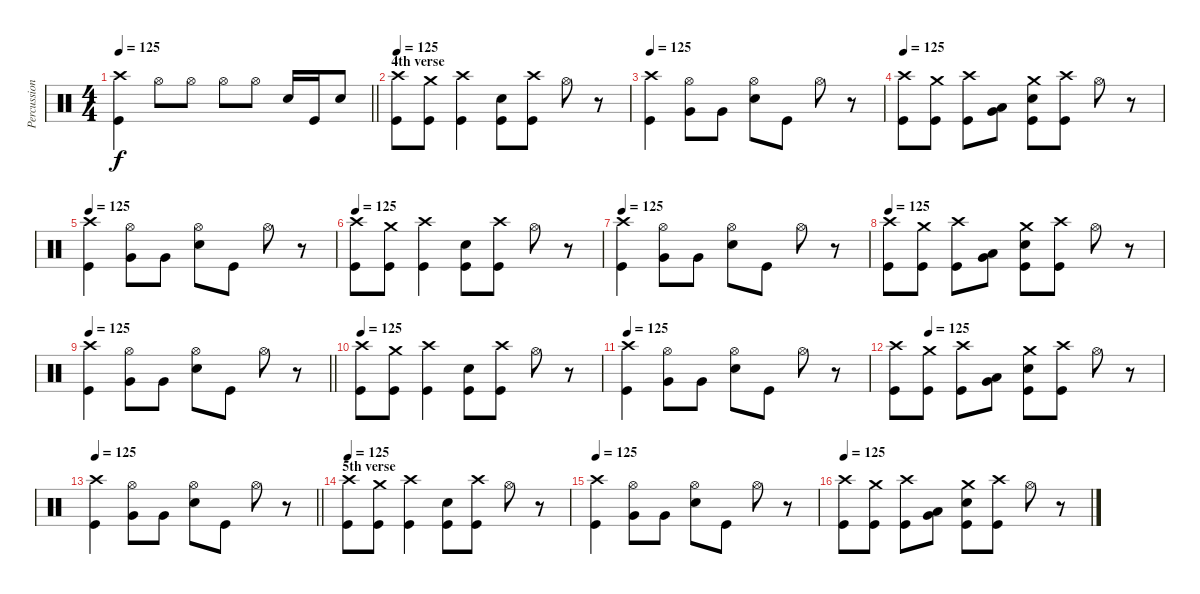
\track ("Percussions" "Percussion") {instrument percussion}
\staff {score}
\articulation defaults
\ts (4 4)
\tempo 125
\clef neutral
\barLineRight lightlight
\ks c
("Crash high (hit)" "Kick (hit)").4{dy f} "Hi-Hat (open)".8 "Hi-Hat (open)".8 "Hi-Hat (open)".8 "Hi-Hat (open)".8 "Electric Snare (hit)".16 "Kick (hit)".16 "Electric Snare (hit)".8 |
\section ("" "4th verse")
\tempo 125
("Crash high (hit)" "Kick (hit)").8 ("Crash medium (hit)" "Kick (hit)").8 ("Crash high (hit)" "Kick (hit)").4 ("Electric Snare (hit)" "Kick (hit)").8 ("Crash high (hit)" "Kick (hit)").8 "Hi-Hat (open)".8 r.8 |
\tempo 125
("Crash high (hit)" "Kick (hit)").4 ("Hi-Hat (open)" "Very Low Tom (hit)").8 "Very Low Tom (hit)".8 ("Hi-Hat (open)" "Electric Snare (hit)").8 "Kick (hit)".8 "Hi-Hat (open)".8 r.8 |
\tempo 125
("Crash high (hit)" "Kick (hit)").8 ("Crash medium (hit)" "Kick (hit)").8 ("Crash high (hit)" "Kick (hit)").8 ("Very Low Tom (hit)" "Low Floor Tom (hit)").8 ("Crash medium (hit)" "Electric Snare (hit)" "Kick (hit)").8 ("Crash high (hit)" "Kick (hit)").8 "Hi-Hat (open)".8 r.8 |
\tempo 125
("Crash high (hit)" "Kick (hit)").4 ("Hi-Hat (open)" "Very Low Tom (hit)").8 "Very Low Tom (hit)".8 ("Hi-Hat (open)" "Electric Snare (hit)").8 "Kick (hit)".8 "Hi-Hat (open)".8 r.8 |
\tempo 125
("Crash high (hit)" "Kick (hit)").8 ("Crash medium (hit)" "Kick (hit)").8 ("Crash high (hit)" "Kick (hit)").4 ("Electric Snare (hit)" "Kick (hit)").8 ("Crash high (hit)" "Kick (hit)").8 "Hi-Hat (open)".8 r.8 |
\tempo 125
("Crash high (hit)" "Kick (hit)").4 ("Hi-Hat (open)" "Very Low Tom (hit)").8 "Very Low Tom (hit)".8 ("Hi-Hat (open)" "Electric Snare (hit)").8 "Kick (hit)".8 "Hi-Hat (open)".8 r.8 |
\tempo 125
("Crash high (hit)" "Kick (hit)").8 ("Crash medium (hit)" "Kick (hit)").8 ("Crash high (hit)" "Kick (hit)").8 ("Very Low Tom (hit)" "Low Floor Tom (hit)").8 ("Crash medium (hit)" "Electric Snare (hit)" "Kick (hit)").8 ("Crash high (hit)" "Kick (hit)").8 "Hi-Hat (open)".8 r.8 |
\tempo 125
\barLineRight lightlight
("Crash high (hit)" "Kick (hit)").4 ("Hi-Hat (open)" "Very Low Tom (hit)").8 "Very Low Tom (hit)".8 ("Hi-Hat (open)" "Electric Snare (hit)").8 "Kick (hit)".8 "Hi-Hat (open)".8 r.8 |
\section ("" "")
\tempo 125
("Crash high (hit)" "Kick (hit)").8 ("Crash medium (hit)" "Kick (hit)").8 ("Crash high (hit)" "Kick (hit)").4 ("Electric Snare (hit)" "Kick (hit)").8 ("Crash high (hit)" "Kick (hit)").8 "Hi-Hat (open)".8 r.8 |
\tempo 125
("Crash high (hit)" "Kick (hit)").4 ("Hi-Hat (open)" "Very Low Tom (hit)").8 "Very Low Tom (hit)".8 ("Hi-Hat (open)" "Electric Snare (hit)").8 "Kick (hit)".8 "Hi-Hat (open)".8 r.8 |
\tempo (125 0.125)
("Crash high (hit)" "Kick (hit)").8 ("Crash medium (hit)" "Kick (hit)").8 ("Crash high (hit)" "Kick (hit)").8 ("Very Low Tom (hit)" "Low Floor Tom (hit)").8 ("Crash medium (hit)" "Electric Snare (hit)" "Kick (hit)").8 ("Crash high (hit)" "Kick (hit)").8 "Hi-Hat (open)".8 r.8 |
\tempo 125
\barLineRight lightlight
("Crash high (hit)" "Kick (hit)").4 ("Hi-Hat (open)" "Very Low Tom (hit)").8 "Very Low Tom (hit)".8 ("Hi-Hat (open)" "Electric Snare (hit)").8 "Kick (hit)".8 "Hi-Hat (open)".8 r.8 |
\section ("" "5th verse")
\tempo 125
("Crash high (hit)" "Kick (hit)").8 ("Crash medium (hit)" "Kick (hit)").8 ("Crash high (hit)" "Kick (hit)").4 ("Electric Snare (hit)" "Kick (hit)").8 ("Crash high (hit)" "Kick (hit)").8 "Hi-Hat (open)".8 r.8 |
\tempo 125
("Crash high (hit)" "Kick (hit)").4 ("Hi-Hat (open)" "Very Low Tom (hit)").8 "Very Low Tom (hit)".8 ("Hi-Hat (open)" "Electric Snare (hit)").8 "Kick (hit)".8 "Hi-Hat (open)".8 r.8 |
\tempo 125
("Crash high (hit)" "Kick (hit)").8 ("Crash medium (hit)" "Kick (hit)").8 ("Crash high (hit)" "Kick (hit)").8 ("Very Low Tom (hit)" "Low Floor Tom (hit)").8 ("Crash medium (hit)" "Electric Snare (hit)" "Kick (hit)").8 ("Crash high (hit)" "Kick (hit)").8 "Hi-Hat (open)".8 r.8
